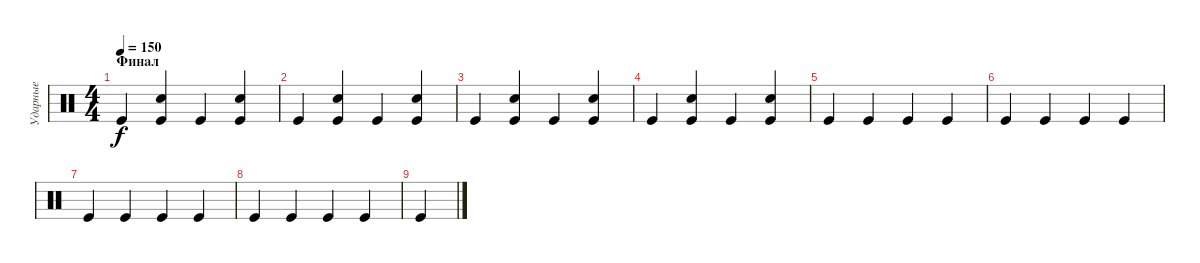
\track ("Ударные" "Ударные") {instrument percussion}
\staff {score}
\articulation defaults
\ts (4 4)
\section ("" "Финал")
\tempo 150
\clef neutral
\ks c "Kick (hit)".4{dy f}
("Kick (hit)" "Snare (hit) 2").4 "Kick (hit)".4 ("Kick (hit)" "Snare (hit) 2").4 |
"Kick (hit)".4 ("Kick (hit)" "Snare (hit) 2").4 "Kick (hit)".4 ("Kick (hit)" "Snare (hit) 2").4 |
"Kick (hit)".4 ("Kick (hit)" "Snare (hit) 2").4 "Kick (hit)".4 ("Kick (hit)" "Snare (hit) 2").4 |
"Kick (hit)".4 ("Kick (hit)" "Snare (hit) 2").4 "Kick (hit)".4 ("Kick (hit)" "Snare (hit) 2").4 |
"Kick (hit)".4 "Kick (hit)".4 "Kick (hit)".4 "Kick (hit)".4 |
"Kick (hit)".4 "Kick (hit)".4 "Kick (hit)".4 "Kick (hit)".4 |
"Kick (hit)".4 "Kick (hit)".4 "Kick (hit)".4 "Kick (hit)".4 |
"Kick (hit)".4 "Kick (hit)".4 "Kick (hit)".4 "Kick (hit)".4 |
"Kick (hit)".4
